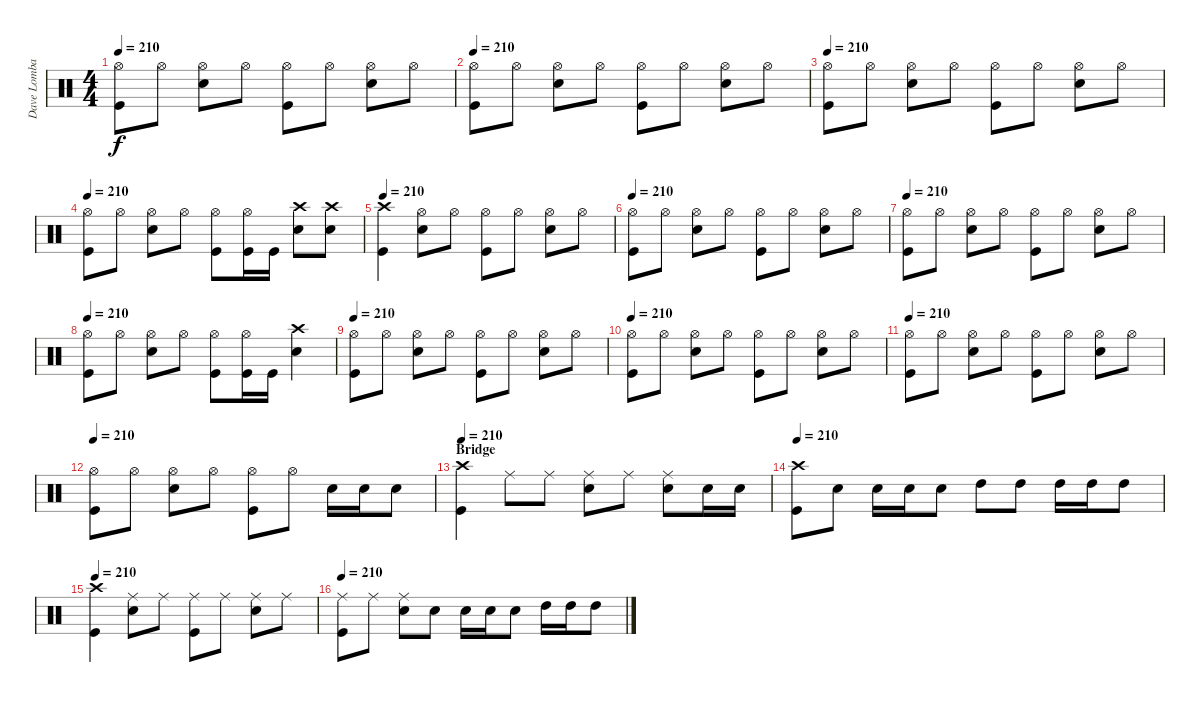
\track ("Dave Lombardo" "Dave Lomba") {instrument percussion}
\staff {score}
\articulation defaults
\ts (4 4)
\tempo 210
\clef neutral
\ks c
("Hi-Hat (open)" "Kick (hit)").8{dy f} "Hi-Hat (open)".8 ("Hi-Hat (open)" "Snare (hit) 2").8 "Hi-Hat (open)".8 ("Hi-Hat (open)" "Kick (hit)").8 "Hi-Hat (open)".8 ("Hi-Hat (open)" "Snare (hit) 2").8 "Hi-Hat (open)".8 |
\tempo 210
("Hi-Hat (open)" "Kick (hit)").8 "Hi-Hat (open)".8 ("Hi-Hat (open)" "Snare (hit) 2").8 "Hi-Hat (open)".8 ("Hi-Hat (open)" "Kick (hit)").8 "Hi-Hat (open)".8 ("Hi-Hat (open)" "Snare (hit) 2").8 "Hi-Hat (open)".8 |
\tempo 210
("Hi-Hat (open)" "Kick (hit)").8 "Hi-Hat (open)".8 ("Hi-Hat (open)" "Snare (hit) 2").8 "Hi-Hat (open)".8 ("Hi-Hat (open)" "Kick (hit)").8 "Hi-Hat (open)".8 ("Hi-Hat (open)" "Snare (hit) 2").8 "Hi-Hat (open)".8 |
\tempo 210
("Hi-Hat (open)" "Kick (hit)").8 "Hi-Hat (open)".8 ("Hi-Hat (open)" "Snare (hit) 2").8 "Hi-Hat (open)".8 ("Hi-Hat (open)" "Kick (hit)").8 ("Hi-Hat (open)" "Kick (hit)").16 "Kick (hit)".16 ("Crash high (hit)" "Snare (hit) 2").8 ("Crash high (hit)" "Snare (hit) 2").8 |
\tempo 210
("Crash high (hit)" "Kick (hit)").4 ("Hi-Hat (open)" "Snare (hit) 2").8 "Hi-Hat (open)".8 ("Hi-Hat (open)" "Kick (hit)").8 "Hi-Hat (open)".8 ("Hi-Hat (open)" "Snare (hit) 2").8 "Hi-Hat (open)".8 |
\tempo 210
("Hi-Hat (open)" "Kick (hit)").8 "Hi-Hat (open)".8 ("Hi-Hat (open)" "Snare (hit) 2").8 "Hi-Hat (open)".8 ("Hi-Hat (open)" "Kick (hit)").8 "Hi-Hat (open)".8 ("Hi-Hat (open)" "Snare (hit) 2").8 "Hi-Hat (open)".8 |
\tempo 210
("Hi-Hat (open)" "Kick (hit)").8 "Hi-Hat (open)".8 ("Hi-Hat (open)" "Snare (hit) 2").8 "Hi-Hat (open)".8 ("Hi-Hat (open)" "Kick (hit)").8 "Hi-Hat (open)".8 ("Hi-Hat (open)" "Snare (hit) 2").8 "Hi-Hat (open)".8 |
\tempo 210
("Hi-Hat (open)" "Kick (hit)").8 "Hi-Hat (open)".8 ("Hi-Hat (open)" "Snare (hit) 2").8 "Hi-Hat (open)".8 ("Hi-Hat (open)" "Kick (hit)").8 ("Hi-Hat (open)" "Kick (hit)").16 "Kick (hit)".16 ("Crash high (hit)" "Snare (hit) 2").4 |
\tempo 210
("Hi-Hat (open)" "Kick (hit)").8 "Hi-Hat (open)".8 ("Hi-Hat (open)" "Snare (hit) 2").8 "Hi-Hat (open)".8 ("Hi-Hat (open)" "Kick (hit)").8 "Hi-Hat (open)".8 ("Hi-Hat (open)" "Snare (hit) 2").8 "Hi-Hat (open)".8 |
\tempo 210
("Hi-Hat (open)" "Kick (hit)").8 "Hi-Hat (open)".8 ("Hi-Hat (open)" "Snare (hit) 2").8 "Hi-Hat (open)".8 ("Hi-Hat (open)" "Kick (hit)").8 "Hi-Hat (open)".8 ("Hi-Hat (open)" "Snare (hit) 2").8 "Hi-Hat (open)".8 |
\tempo 210
("Hi-Hat (open)" "Kick (hit)").8 "Hi-Hat (open)".8 ("Hi-Hat (open)" "Snare (hit) 2").8 "Hi-Hat (open)".8 ("Hi-Hat (open)" "Kick (hit)").8 "Hi-Hat (open)".8 ("Hi-Hat (open)" "Snare (hit) 2").8 "Hi-Hat (open)".8 |
\tempo 210
("Hi-Hat (open)" "Kick (hit)").8 "Hi-Hat (open)".8 ("Hi-Hat (open)" "Snare (hit) 2").8 "Hi-Hat (open)".8 ("Hi-Hat (open)" "Kick (hit)").8 "Hi-Hat (open)".8 "Snare (hit) 2".16 "Snare (hit) 2".16 "Snare (hit) 2".8 |
\section ("" "Bridge")
\tempo 210
("Crash high (hit)" "Kick (hit)").4 "Ride (middle)".8 "Ride (middle)".8 ("Ride (middle)" "Snare (hit) 2").8 "Ride (middle)".8 ("Ride (middle)" "Snare (hit) 2").8 "Snare (hit) 2".16 "Snare (hit) 2".16 |
\tempo 210
("Crash high (hit)" "Kick (hit)").8 "Snare (hit) 2".8 "Snare (hit) 2".16 "Snare (hit) 2".16 "Snare (hit) 2".8 "High Tom (hit)".8 "High Tom (hit)".8 "High Tom (hit)".16 "High Tom (hit)".16 "High Tom (hit)".8 |
\tempo 210
("Crash high (hit)" "Kick (hit)").4 ("Ride (middle)" "Snare (hit) 2").8 "Ride (middle)".8 ("Ride (middle)" "Kick (hit)").8 "Ride (middle)".8 ("Ride (middle)" "Snare (hit) 2").8 "Ride (middle)".8 |
\tempo 210
("Ride (middle)" "Kick (hit)").8 "Ride (middle)".8 ("Ride (middle)" "Snare (hit) 2").8 "Snare (hit) 2".8 "Snare (hit) 2".16 "Snare (hit) 2".16 "Snare (hit) 2".8 "High Tom (hit)".16 "High Tom (hit)".16 "High Tom (hit)".8
